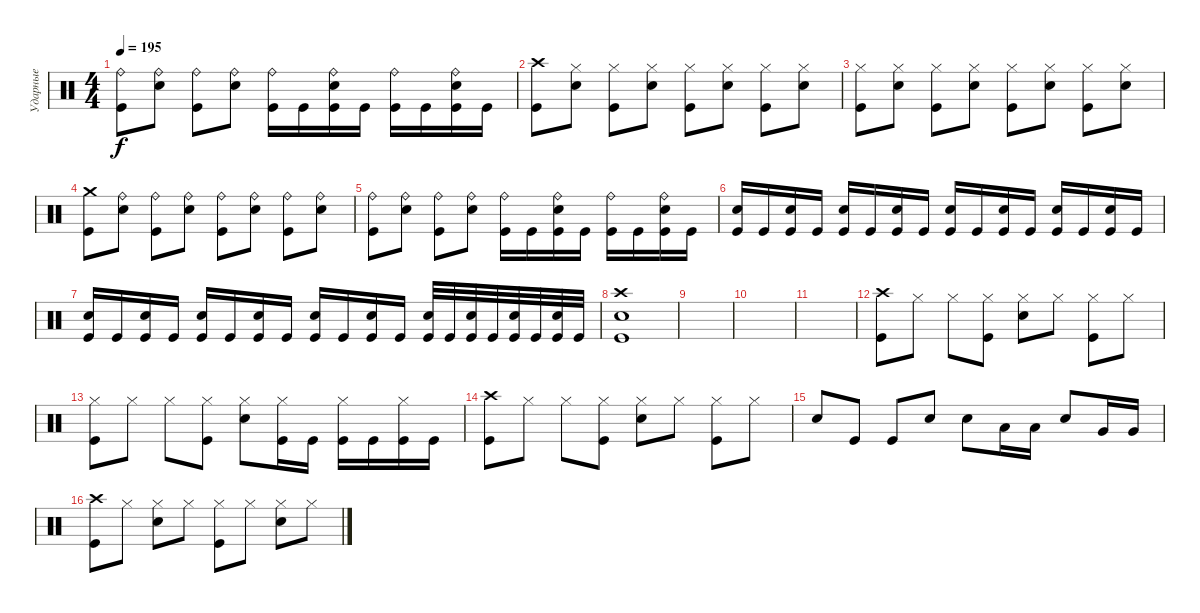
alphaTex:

\track ("Ударные" "Ударные") {instrument percussion}
\staff {score}
\articulation defaults
\ts (4 4)
\tempo 195
\clef neutral
\ks c
("Ride (bell)" "Kick (hit)").8{dy f} ("Ride (bell)" "Electric Snare (hit)").8 ("Ride (bell)" "Kick (hit)").8 ("Ride (bell)" "Electric Snare (hit)").8 ("Ride (bell)" "Kick (hit)").16 "Kick (hit)".16 ("Ride (bell)" "Electric Snare (hit)" "Kick (hit)").16 "Kick (hit)".16 ("Ride (bell)" "Kick (hit)").16 "Kick (hit)".16 ("Ride (bell)" "Electric Snare (hit)" "Kick (hit)").16 "Kick (hit)".16 |
("Crash high (hit)" "Kick (hit)").8 ("Hi-Hat (closed)" "Electric Snare (hit)").8 ("Hi-Hat (closed)" "Kick (hit)").8 ("Hi-Hat (closed)" "Electric Snare (hit)").8 ("Hi-Hat (closed)" "Kick (hit)").8 ("Hi-Hat (closed)" "Electric Snare (hit)").8 ("Hi-Hat (closed)" "Kick (hit)").8 ("Hi-Hat (closed)" "Electric Snare (hit)").8 |
("Hi-Hat (closed)" "Kick (hit)").8 ("Hi-Hat (closed)" "Electric Snare (hit)").8 ("Hi-Hat (closed)" "Kick (hit)").8 ("Hi-Hat (closed)" "Electric Snare (hit)").8 ("Hi-Hat (closed)" "Kick (hit)").8 ("Hi-Hat (closed)" "Electric Snare (hit)").8 ("Hi-Hat (closed)" "Kick (hit)").8 ("Hi-Hat (closed)" "Electric Snare (hit)").8 |
("Crash medium (hit)" "Kick (hit)").8 ("Ride (bell)" "Electric Snare (hit)").8 ("Ride (bell)" "Kick (hit)").8 ("Ride (bell)" "Electric Snare (hit)").8 ("Ride (bell)" "Kick (hit)").8 ("Ride (bell)" "Electric Snare (hit)").8 ("Ride (bell)" "Kick (hit)").8 ("Ride (bell)" "Electric Snare (hit)").8 |
("Ride (bell)" "Kick (hit)").8 ("Ride (bell)" "Electric Snare (hit)").8 ("Ride (bell)" "Kick (hit)").8 ("Ride (bell)" "Electric Snare (hit)").8 ("Ride (bell)" "Kick (hit)").16 "Kick (hit)".16 ("Ride (bell)" "Electric Snare (hit)" "Kick (hit)").16 "Kick (hit)".16 ("Ride (bell)" "Kick (hit)").16 "Kick (hit)".16 ("Ride (bell)" "Electric Snare (hit)" "Kick (hit)").16 "Kick (hit)".16 |
("Electric Snare (hit)" "Kick (hit)").16 "Kick (hit)".16 ("Electric Snare (hit)" "Kick (hit)").16 "Kick (hit)".16 ("Electric Snare (hit)" "Kick (hit)").16 "Kick (hit)".16 ("Electric Snare (hit)" "Kick (hit)").16 "Kick (hit)".16 ("Electric Snare (hit)" "Kick (hit)").16 "Kick (hit)".16 ("Electric Snare (hit)" "Kick (hit)").16 "Kick (hit)".16 ("Electric Snare (hit)" "Kick (hit)").16 "Kick (hit)".16 ("Electric Snare (hit)" "Kick (hit)").16 "Kick (hit)".16 |
("Electric Snare (hit)" "Kick (hit)").16 "Kick (hit)".16 ("Electric Snare (hit)" "Kick (hit)").16 "Kick (hit)".16 ("Electric Snare (hit)" "Kick (hit)").16 "Kick (hit)".16 ("Electric Snare (hit)" "Kick (hit)").16 "Kick (hit)".16 ("Electric Snare (hit)" "Kick (hit)").16 "Kick (hit)".16 ("Electric Snare (hit)" "Kick (hit)").16 "Kick (hit)".16 ("Electric Snare (hit)" "Kick (hit)").32 "Kick (hit)".32 ("Electric Snare (hit)" "Kick (hit)").32 "Kick (hit)".32 ("Electric Snare (hit)" "Kick (hit)").32 "Kick (hit)".32 ("Electric Snare (hit)" "Kick (hit)").32 "Kick (hit)".32 |
("Electric Snare (hit)" "Crash high (hit)" "Kick (hit)").1 |
|
|
|
("Crash high (hit)" "Kick (hit)").8 "Hi-Hat (closed)".8 "Hi-Hat (closed)".8 ("Hi-Hat (closed)" "Kick (hit)").8 ("Hi-Hat (closed)" "Electric Snare (hit)").8 "Hi-Hat (closed)".8 ("Hi-Hat (closed)" "Kick (hit)").8 "Hi-Hat (closed)".8 |
("Hi-Hat (closed)" "Kick (hit)").8 "Hi-Hat (closed)".8 "Hi-Hat (closed)".8 ("Hi-Hat (closed)" "Kick (hit)").8 ("Hi-Hat (closed)" "Electric Snare (hit)").8 ("Hi-Hat (closed)" "Kick (hit)").16 "Kick (hit)".16 ("Hi-Hat (closed)" "Kick (hit)").16 "Kick (hit)".16 ("Hi-Hat (closed)" "Kick (hit)").16 "Kick (hit)".16 |
("Crash high (hit)" "Kick (hit)").8 "Hi-Hat (closed)".8 "Hi-Hat (closed)".8 ("Hi-Hat (closed)" "Kick (hit)").8 ("Hi-Hat (closed)" "Electric Snare (hit)").8 "Hi-Hat (closed)".8 ("Hi-Hat (closed)" "Kick (hit)").8 "Hi-Hat (closed)".8 |
"Electric Snare (hit)".8 "Kick (hit)".8 "Kick (hit)".8 "Electric Snare (hit)".8 "Electric Snare (hit)".8 "Low Tom (hit)".16 "Low Tom (hit)".16 "Electric Snare (hit)".8 "Very Low Tom (hit)".16 "Very Low Tom (hit)".16 |
("Crash high (hit)" "Kick (hit)").8 "Hi-Hat (closed)".8 ("Hi-Hat (closed)" "Electric Snare (hit)").8 "Hi-Hat (closed)".8 ("Hi-Hat (closed)" "Kick (hit)").8 "Hi-Hat (closed)".8 ("Hi-Hat (closed)" "Electric Snare (hit)").8 "Hi-Hat (closed)".8
